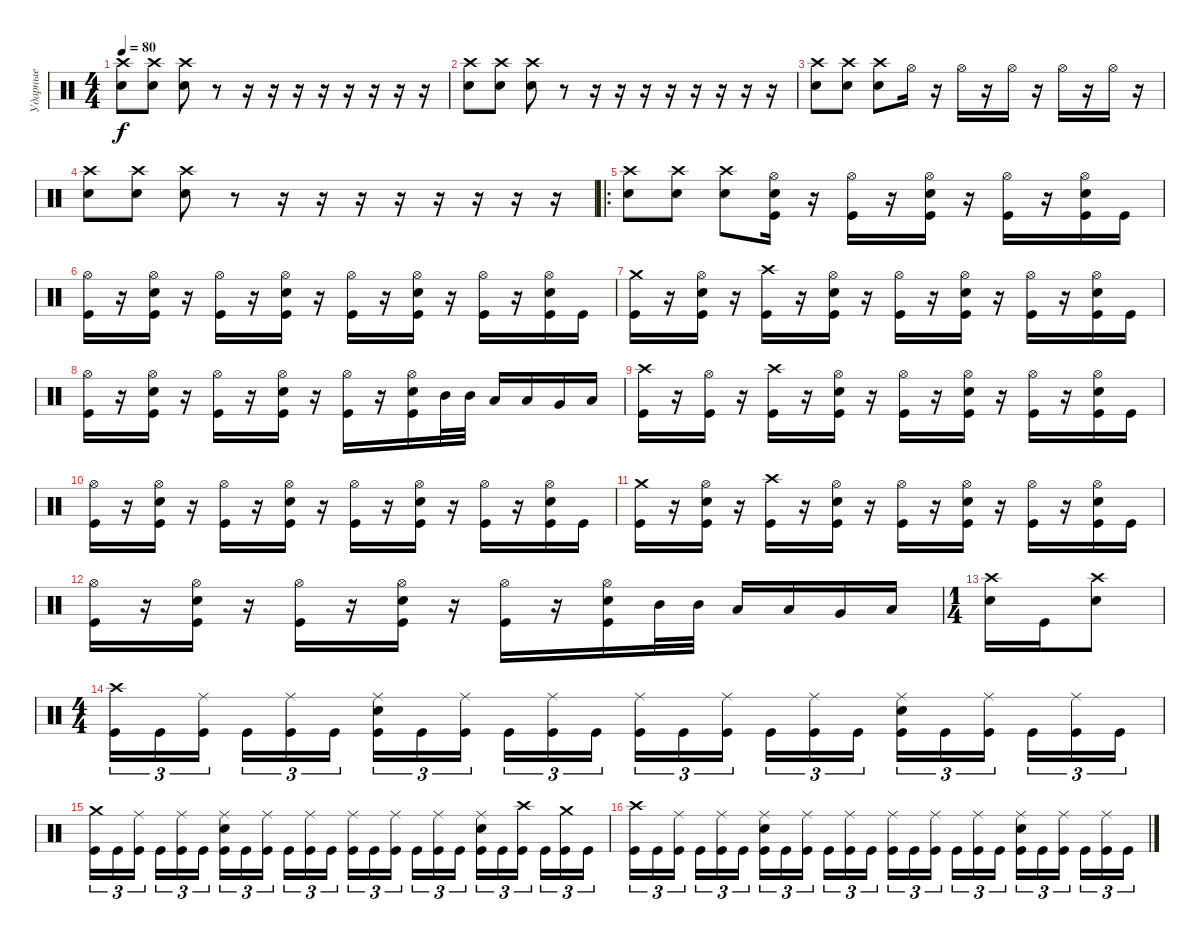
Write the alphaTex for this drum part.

\track ("Ударные" "Ударные") {instrument percussion}
\staff {score}
\articulation defaults
\ts (4 4)
\tempo 80
\clef neutral
\ks c
("Crash high (hit)" "Electric Snare (hit)").8{dy f} ("Crash high (hit)" "Electric Snare (hit)").8 ("Crash high (hit)" "Electric Snare (hit)").8 r.8 r.16 r.16 r.16 r.16 r.16 r.16 r.16 r.16 |
("Crash high (hit)" "Electric Snare (hit)").8 ("Crash high (hit)" "Electric Snare (hit)").8 ("Crash high (hit)" "Electric Snare (hit)").8 r.8 r.16 r.16 r.16 r.16 r.16 r.16 r.16 r.16 |
("Crash high (hit)" "Electric Snare (hit)").8 ("Crash high (hit)" "Electric Snare (hit)").8 ("Crash high (hit)" "Electric Snare (hit)").8 "Hi-Hat (open)".16 r.16 "Hi-Hat (open)".16 r.16 "Hi-Hat (open)".16 r.16 "Hi-Hat (open)".16 r.16 "Hi-Hat (open)".16 r.16 |
("Crash high (hit)" "Electric Snare (hit)").8 ("Crash high (hit)" "Electric Snare (hit)").8 ("Crash high (hit)" "Electric Snare (hit)").8 r.8 r.16 r.16 r.16 r.16 r.16 r.16 r.16 r.16 |
\ro
("Crash high (hit)" "Electric Snare (hit)").8 ("Crash high (hit)" "Electric Snare (hit)").8 ("Crash high (hit)" "Electric Snare (hit)").8 ("Kick (hit)" "Hi-Hat (open)" "Electric Snare (hit)").16 r.16 ("Kick (hit)" "Hi-Hat (open)").16 r.16 ("Kick (hit)" "Hi-Hat (open)" "Electric Snare (hit)").16 r.16 ("Kick (hit)" "Hi-Hat (open)").16 r.16 ("Kick (hit)" "Hi-Hat (open)" "Electric Snare (hit)").16 "Kick (hit)".16 |
("Kick (hit)" "Hi-Hat (open)").16 r.16 ("Kick (hit)" "Hi-Hat (open)" "Electric Snare (hit)").16 r.16 ("Kick (hit)" "Hi-Hat (open)").16 r.16 ("Kick (hit)" "Hi-Hat (open)" "Electric Snare (hit)").16 r.16 ("Kick (hit)" "Hi-Hat (open)").16 r.16 ("Kick (hit)" "Hi-Hat (open)" "Electric Snare (hit)").16 r.16 ("Kick (hit)" "Hi-Hat (open)").16 r.16 ("Kick (hit)" "Hi-Hat (open)" "Electric Snare (hit)").16 "Kick (hit)".16 |
("Kick (hit)" "Crash medium (hit)").16 r.16 ("Kick (hit)" "Hi-Hat (open)" "Electric Snare (hit)").16 r.16 ("Kick (hit)" "Crash high (hit)").16 r.16 ("Kick (hit)" "Hi-Hat (open)" "Electric Snare (hit)").16 r.16 ("Kick (hit)" "Hi-Hat (open)").16 r.16 ("Kick (hit)" "Hi-Hat (open)" "Electric Snare (hit)").16 r.16 ("Kick (hit)" "Hi-Hat (open)").16 r.16 ("Kick (hit)" "Hi-Hat (open)" "Electric Snare (hit)").16 "Kick (hit)".16 |
("Kick (hit)" "Hi-Hat (open)").16 r.16 ("Kick (hit)" "Hi-Hat (open)" "Electric Snare (hit)").16 r.16 ("Kick (hit)" "Hi-Hat (open)").16 r.16 ("Kick (hit)" "Hi-Hat (open)" "Electric Snare (hit)").16 r.16 ("Kick (hit)" "Hi-Hat (open)").16 r.16 ("Kick (hit)" "Hi-Hat (open)" "Electric Snare (hit)").16 "Mid Tom (hit)".32 "Mid Tom (hit)".32 "Low Tom (hit)".16 "Low Tom (hit)".16 "Very Low Tom (hit)".16 "Low Floor Tom (hit)".16 |
("Kick (hit)" "Crash high (hit)").16 r.16 ("Kick (hit)" "Hi-Hat (open)").16 r.16 ("Kick (hit)" "Crash high (hit)").16 r.16 ("Kick (hit)" "Hi-Hat (open)" "Electric Snare (hit)").16 r.16 ("Kick (hit)" "Hi-Hat (open)").16 r.16 ("Kick (hit)" "Hi-Hat (open)" "Electric Snare (hit)").16 r.16 ("Kick (hit)" "Hi-Hat (open)").16 r.16 ("Kick (hit)" "Hi-Hat (open)" "Electric Snare (hit)").16 "Kick (hit)".16 |
("Kick (hit)" "Hi-Hat (open)").16 r.16 ("Kick (hit)" "Hi-Hat (open)" "Electric Snare (hit)").16 r.16 ("Kick (hit)" "Hi-Hat (open)").16 r.16 ("Kick (hit)" "Hi-Hat (open)" "Electric Snare (hit)").16 r.16 ("Kick (hit)" "Hi-Hat (open)").16 r.16 ("Kick (hit)" "Hi-Hat (open)" "Electric Snare (hit)").16 r.16 ("Kick (hit)" "Hi-Hat (open)").16 r.16 ("Kick (hit)" "Hi-Hat (open)" "Electric Snare (hit)").16 "Kick (hit)".16 |
("Kick (hit)" "Crash medium (hit)").16 r.16 ("Kick (hit)" "Hi-Hat (open)" "Electric Snare (hit)").16 r.16 ("Kick (hit)" "Crash high (hit)").16 r.16 ("Kick (hit)" "Hi-Hat (open)" "Electric Snare (hit)").16 r.16 ("Kick (hit)" "Hi-Hat (open)").16 r.16 ("Kick (hit)" "Hi-Hat (open)" "Electric Snare (hit)").16 r.16 ("Kick (hit)" "Hi-Hat (open)").16 r.16 ("Kick (hit)" "Hi-Hat (open)" "Electric Snare (hit)").16 "Kick (hit)".16 |
("Kick (hit)" "Hi-Hat (open)").16 r.16 ("Kick (hit)" "Hi-Hat (open)" "Electric Snare (hit)").16 r.16 ("Kick (hit)" "Hi-Hat (open)").16 r.16 ("Kick (hit)" "Hi-Hat (open)" "Electric Snare (hit)").16 r.16 ("Kick (hit)" "Hi-Hat (open)").16 r.16 ("Kick (hit)" "Hi-Hat (open)" "Electric Snare (hit)").16 "Mid Tom (hit)".32 "Mid Tom (hit)".32 "Low Tom (hit)".16 "Low Tom (hit)".16 "Very Low Tom (hit)".16 "Low Floor Tom (hit)".16 |
\ts (1 4)
("Crash high (hit)" "Electric Snare (hit)").16 "Kick (hit)".16 ("Crash high (hit)" "Electric Snare (hit)").8 |
\ts (4 4)
("Crash high (hit)" "Kick (hit)").16{tu (3 2)} "Kick (hit)".16{tu (3 2)} ("Ride (middle)" "Kick (hit)").16{tu (3 2)} "Kick (hit)".16{tu (3 2)} ("Ride (middle)" "Kick (hit)").16{tu (3 2)} "Kick (hit)".16{tu (3 2)} ("Ride (middle)" "Electric Snare (hit)" "Kick (hit)").16{tu (3 2)} "Kick (hit)".16{tu (3 2)} ("Ride (middle)" "Kick (hit)").16{tu (3 2)} "Kick (hit)".16{tu (3 2)} ("Ride (middle)" "Kick (hit)").16{tu (3 2)} "Kick (hit)".16{tu (3 2)} ("Ride (middle)" "Kick (hit)").16{tu (3 2)} "Kick (hit)".16{tu (3 2)} ("Ride (middle)" "Kick (hit)").16{tu (3 2)} "Kick (hit)".16{tu (3 2)} ("Ride (middle)" "Kick (hit)").16{tu (3 2)} "Kick (hit)".16{tu (3 2)} ("Ride (middle)" "Electric Snare (hit)" "Kick (hit)").16{tu (3 2)} "Kick (hit)".16{tu (3 2)} ("Ride (middle)" "Kick (hit)").16{tu (3 2)} "Kick (hit)".16{tu (3 2)} ("Ride (middle)" "Kick (hit)").16{tu (3 2)} "Kick (hit)".16{tu (3 2)} |
("Crash medium (hit)" "Kick (hit)").16{tu (3 2)} "Kick (hit)".16{tu (3 2)} ("Ride (middle)" "Kick (hit)").16{tu (3 2)} "Kick (hit)".16{tu (3 2)} ("Ride (middle)" "Kick (hit)").16{tu (3 2)} "Kick (hit)".16{tu (3 2)} ("Ride (middle)" "Electric Snare (hit)" "Kick (hit)").16{tu (3 2)} "Kick (hit)".16{tu (3 2)} ("Ride (middle)" "Kick (hit)").16{tu (3 2)} "Kick (hit)".16{tu (3 2)} ("Ride (middle)" "Kick (hit)").16{tu (3 2)} "Kick (hit)".16{tu (3 2)} ("Ride (middle)" "Kick (hit)").16{tu (3 2)} "Kick (hit)".16{tu (3 2)} ("Ride (middle)" "Kick (hit)").16{tu (3 2)} "Kick (hit)".16{tu (3 2)} ("Ride (middle)" "Kick (hit)").16{tu (3 2)} "Kick (hit)".16{tu (3 2)} ("Ride (middle)" "Electric Snare (hit)" "Kick (hit)").16{tu (3 2)} "Kick (hit)".16{tu (3 2)} ("Crash high (hit)" "Kick (hit)").16{tu (3 2)} "Kick (hit)".16{tu (3 2)} ("Crash medium (hit)" "Kick (hit)").16{tu (3 2)} "Kick (hit)".16{tu (3 2)} |
("Crash high (hit)" "Kick (hit)").16{tu (3 2)} "Kick (hit)".16{tu (3 2)} ("Ride (middle)" "Kick (hit)").16{tu (3 2)} "Kick (hit)".16{tu (3 2)} ("Ride (middle)" "Kick (hit)").16{tu (3 2)} "Kick (hit)".16{tu (3 2)} ("Ride (middle)" "Electric Snare (hit)" "Kick (hit)").16{tu (3 2)} "Kick (hit)".16{tu (3 2)} ("Ride (middle)" "Kick (hit)").16{tu (3 2)} "Kick (hit)".16{tu (3 2)} ("Ride (middle)" "Kick (hit)").16{tu (3 2)} "Kick (hit)".16{tu (3 2)} ("Ride (middle)" "Kick (hit)").16{tu (3 2)} "Kick (hit)".16{tu (3 2)} ("Ride (middle)" "Kick (hit)").16{tu (3 2)} "Kick (hit)".16{tu (3 2)} ("Ride (middle)" "Kick (hit)").16{tu (3 2)} "Kick (hit)".16{tu (3 2)} ("Ride (middle)" "Electric Snare (hit)" "Kick (hit)").16{tu (3 2)} "Kick (hit)".16{tu (3 2)} ("Ride (middle)" "Kick (hit)").16{tu (3 2)} "Kick (hit)".16{tu (3 2)} ("Ride (middle)" "Kick (hit)").16{tu (3 2)} "Kick (hit)".16{tu (3 2)}
